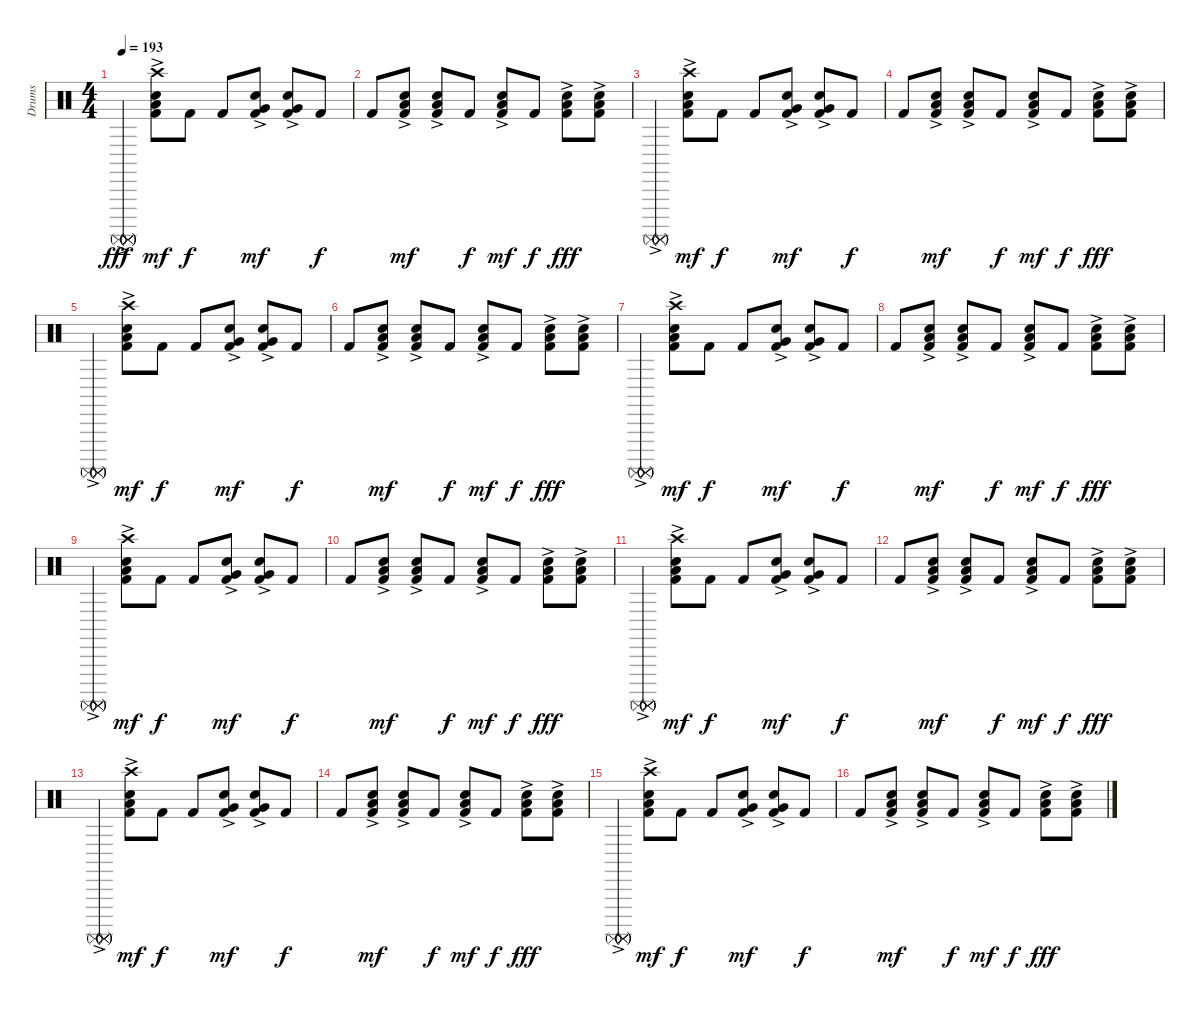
\track ("Drums" "Drums") {instrument percussion}
\staff {score}
\articulation defaults
\ts (4 4)
\tempo 193
\clef neutral
\ks c
("Surdo (mute)"{ac} "Surdo (mute)"{ac} "Surdo (mute)"{ac} "Surdo (mute)"{ac}).4{dy fff} ("Crash high (hit)" "Low Tom (hit)"{ac} "Snare (hit) 2"{ac} "Kick (hit) 2").8{dy mf} "Kick (hit) 2".8{dy f} "Kick (hit) 2".8 ("Very Low Tom (hit)"{ac} "Snare (hit) 2"{ac} "Kick (hit) 2").8{dy mf} ("Very Low Tom (hit)"{ac} "Snare (hit) 2"{ac} "Kick (hit) 2").8 "Kick (hit) 2".8{dy f} |
"Kick (hit) 2".8 ("Low Floor Tom (hit)"{ac} "Snare (hit) 2"{ac} "Kick (hit) 2").8{dy mf} ("Low Floor Tom (hit)"{ac} "Snare (hit) 2"{ac} "Kick (hit) 2").8 "Kick (hit) 2".8{dy f} ("Low Floor Tom (hit)"{ac} "Snare (hit) 2"{ac} "Kick (hit) 2").8{dy mf} "Kick (hit) 2".8{dy f} ("Low Floor Tom (hit)"{ac} "Snare (hit) 2"{ac} "Kick (hit) 2"{ac}).8{dy fff} ("Low Floor Tom (hit)"{ac} "Snare (hit) 2"{ac} "Kick (hit) 2"{ac}).8 |
("Surdo (mute)"{ac} "Surdo (mute)"{ac} "Surdo (mute)"{ac} "Surdo (mute)"{ac}).4 ("Crash high (hit)" "Low Tom (hit)"{ac} "Snare (hit) 2"{ac} "Kick (hit) 2").8{dy mf} "Kick (hit) 2".8{dy f} "Kick (hit) 2".8 ("Very Low Tom (hit)"{ac} "Snare (hit) 2"{ac} "Kick (hit) 2").8{dy mf} ("Very Low Tom (hit)"{ac} "Snare (hit) 2"{ac} "Kick (hit) 2").8 "Kick (hit) 2".8{dy f} |
"Kick (hit) 2".8 ("Low Floor Tom (hit)"{ac} "Snare (hit) 2"{ac} "Kick (hit) 2").8{dy mf} ("Low Floor Tom (hit)"{ac} "Snare (hit) 2"{ac} "Kick (hit) 2").8 "Kick (hit) 2".8{dy f} ("Low Floor Tom (hit)"{ac} "Snare (hit) 2"{ac} "Kick (hit) 2").8{dy mf} "Kick (hit) 2".8{dy f} ("Low Floor Tom (hit)"{ac} "Snare (hit) 2"{ac} "Kick (hit) 2"{ac}).8{dy fff} ("Low Floor Tom (hit)"{ac} "Snare (hit) 2"{ac} "Kick (hit) 2"{ac}).8 |
("Surdo (mute)"{ac} "Surdo (mute)"{ac} "Surdo (mute)"{ac} "Surdo (mute)"{ac}).4 ("Crash high (hit)" "Low Tom (hit)"{ac} "Snare (hit) 2"{ac} "Kick (hit) 2").8{dy mf} "Kick (hit) 2".8{dy f} "Kick (hit) 2".8 ("Very Low Tom (hit)"{ac} "Snare (hit) 2"{ac} "Kick (hit) 2").8{dy mf} ("Very Low Tom (hit)"{ac} "Snare (hit) 2"{ac} "Kick (hit) 2").8 "Kick (hit) 2".8{dy f} |
"Kick (hit) 2".8 ("Low Floor Tom (hit)"{ac} "Snare (hit) 2"{ac} "Kick (hit) 2").8{dy mf} ("Low Floor Tom (hit)"{ac} "Snare (hit) 2"{ac} "Kick (hit) 2").8 "Kick (hit) 2".8{dy f} ("Low Floor Tom (hit)"{ac} "Snare (hit) 2"{ac} "Kick (hit) 2").8{dy mf} "Kick (hit) 2".8{dy f} ("Low Floor Tom (hit)"{ac} "Snare (hit) 2"{ac} "Kick (hit) 2"{ac}).8{dy fff} ("Low Floor Tom (hit)"{ac} "Snare (hit) 2"{ac} "Kick (hit) 2"{ac}).8 |
("Surdo (mute)"{ac} "Surdo (mute)"{ac} "Surdo (mute)"{ac} "Surdo (mute)"{ac}).4 ("Crash high (hit)" "Low Tom (hit)"{ac} "Snare (hit) 2"{ac} "Kick (hit) 2").8{dy mf} "Kick (hit) 2".8{dy f} "Kick (hit) 2".8 ("Very Low Tom (hit)"{ac} "Snare (hit) 2"{ac} "Kick (hit) 2").8{dy mf} ("Very Low Tom (hit)"{ac} "Snare (hit) 2"{ac} "Kick (hit) 2").8 "Kick (hit) 2".8{dy f} |
"Kick (hit) 2".8 ("Low Floor Tom (hit)"{ac} "Snare (hit) 2"{ac} "Kick (hit) 2").8{dy mf} ("Low Floor Tom (hit)"{ac} "Snare (hit) 2"{ac} "Kick (hit) 2").8 "Kick (hit) 2".8{dy f} ("Low Floor Tom (hit)"{ac} "Snare (hit) 2"{ac} "Kick (hit) 2").8{dy mf} "Kick (hit) 2".8{dy f} ("Low Floor Tom (hit)"{ac} "Snare (hit) 2"{ac} "Kick (hit) 2"{ac}).8{dy fff} ("Low Floor Tom (hit)"{ac} "Snare (hit) 2"{ac} "Kick (hit) 2"{ac}).8 |
("Surdo (mute)"{ac} "Surdo (mute)"{ac} "Surdo (mute)"{ac} "Surdo (mute)"{ac}).4 ("Crash high (hit)" "Low Tom (hit)"{ac} "Snare (hit) 2"{ac} "Kick (hit) 2").8{dy mf} "Kick (hit) 2".8{dy f} "Kick (hit) 2".8 ("Very Low Tom (hit)"{ac} "Snare (hit) 2"{ac} "Kick (hit) 2").8{dy mf} ("Very Low Tom (hit)"{ac} "Snare (hit) 2"{ac} "Kick (hit) 2").8 "Kick (hit) 2".8{dy f} |
"Kick (hit) 2".8 ("Low Floor Tom (hit)"{ac} "Snare (hit) 2"{ac} "Kick (hit) 2").8{dy mf} ("Low Floor Tom (hit)"{ac} "Snare (hit) 2"{ac} "Kick (hit) 2").8 "Kick (hit) 2".8{dy f} ("Low Floor Tom (hit)"{ac} "Snare (hit) 2"{ac} "Kick (hit) 2").8{dy mf} "Kick (hit) 2".8{dy f} ("Low Floor Tom (hit)"{ac} "Snare (hit) 2"{ac} "Kick (hit) 2"{ac}).8{dy fff} ("Low Floor Tom (hit)"{ac} "Snare (hit) 2"{ac} "Kick (hit) 2"{ac}).8 |
("Surdo (mute)"{ac} "Surdo (mute)"{ac} "Surdo (mute)"{ac} "Surdo (mute)"{ac}).4 ("Crash high (hit)" "Low Tom (hit)"{ac} "Snare (hit) 2"{ac} "Kick (hit) 2").8{dy mf} "Kick (hit) 2".8{dy f} "Kick (hit) 2".8 ("Very Low Tom (hit)"{ac} "Snare (hit) 2"{ac} "Kick (hit) 2").8{dy mf} ("Very Low Tom (hit)"{ac} "Snare (hit) 2"{ac} "Kick (hit) 2").8 "Kick (hit) 2".8{dy f} |
"Kick (hit) 2".8 ("Low Floor Tom (hit)"{ac} "Snare (hit) 2"{ac} "Kick (hit) 2").8{dy mf} ("Low Floor Tom (hit)"{ac} "Snare (hit) 2"{ac} "Kick (hit) 2").8 "Kick (hit) 2".8{dy f} ("Low Floor Tom (hit)"{ac} "Snare (hit) 2"{ac} "Kick (hit) 2").8{dy mf} "Kick (hit) 2".8{dy f} ("Low Floor Tom (hit)"{ac} "Snare (hit) 2"{ac} "Kick (hit) 2"{ac}).8{dy fff} ("Low Floor Tom (hit)"{ac} "Snare (hit) 2"{ac} "Kick (hit) 2"{ac}).8 |
("Surdo (mute)"{ac} "Surdo (mute)"{ac} "Surdo (mute)"{ac} "Surdo (mute)"{ac}).4 ("Crash high (hit)" "Low Tom (hit)"{ac} "Snare (hit) 2"{ac} "Kick (hit) 2").8{dy mf} "Kick (hit) 2".8{dy f} "Kick (hit) 2".8 ("Very Low Tom (hit)"{ac} "Snare (hit) 2"{ac} "Kick (hit) 2").8{dy mf} ("Very Low Tom (hit)"{ac} "Snare (hit) 2"{ac} "Kick (hit) 2").8 "Kick (hit) 2".8{dy f} |
"Kick (hit) 2".8 ("Low Floor Tom (hit)"{ac} "Snare (hit) 2"{ac} "Kick (hit) 2").8{dy mf} ("Low Floor Tom (hit)"{ac} "Snare (hit) 2"{ac} "Kick (hit) 2").8 "Kick (hit) 2".8{dy f} ("Low Floor Tom (hit)"{ac} "Snare (hit) 2"{ac} "Kick (hit) 2").8{dy mf} "Kick (hit) 2".8{dy f} ("Low Floor Tom (hit)"{ac} "Snare (hit) 2"{ac} "Kick (hit) 2"{ac}).8{dy fff} ("Low Floor Tom (hit)"{ac} "Snare (hit) 2"{ac} "Kick (hit) 2"{ac}).8 |
("Surdo (mute)"{ac} "Surdo (mute)"{ac} "Surdo (mute)"{ac} "Surdo (mute)"{ac}).4{volume 10} ("Crash high (hit)" "Low Tom (hit)"{ac} "Snare (hit) 2"{ac} "Kick (hit) 2").8{dy mf} "Kick (hit) 2".8{dy f} "Kick (hit) 2".8 ("Very Low Tom (hit)"{ac} "Snare (hit) 2"{ac} "Kick (hit) 2").8{dy mf} ("Very Low Tom (hit)"{ac} "Snare (hit) 2"{ac} "Kick (hit) 2").8 "Kick (hit) 2".8{dy f} |
"Kick (hit) 2".8 ("Low Floor Tom (hit)"{ac} "Snare (hit) 2"{ac} "Kick (hit) 2").8{dy mf} ("Low Floor Tom (hit)"{ac} "Snare (hit) 2"{ac} "Kick (hit) 2").8 "Kick (hit) 2".8{dy f} ("Low Floor Tom (hit)"{ac} "Snare (hit) 2"{ac} "Kick (hit) 2").8{dy mf} "Kick (hit) 2".8{dy f} ("Low Floor Tom (hit)"{ac} "Snare (hit) 2"{ac} "Kick (hit) 2"{ac}).8{dy fff} ("Low Floor Tom (hit)"{ac} "Snare (hit) 2"{ac} "Kick (hit) 2"{ac}).8
